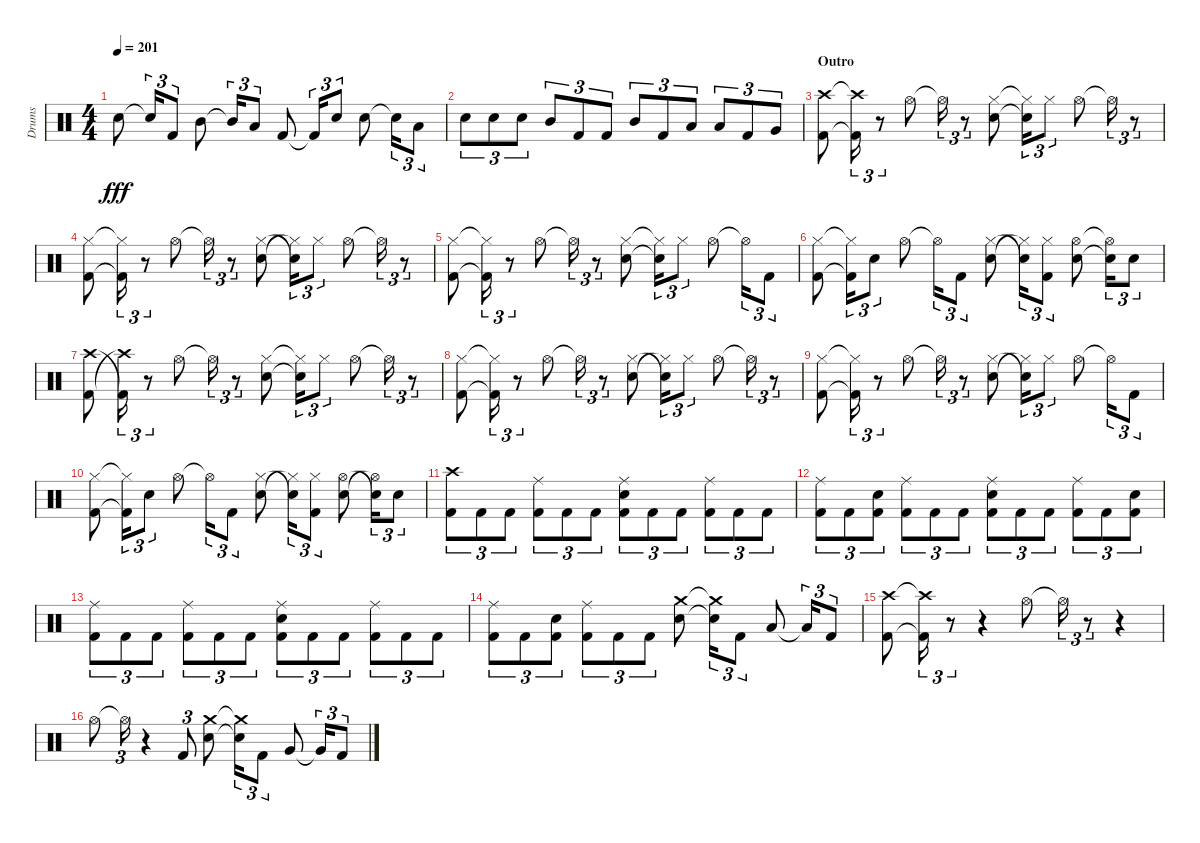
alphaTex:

\track ("Drums" "Drums") {instrument percussion}
\staff {score}
\articulation defaults
\ts (4 4)
\tempo 201
\clef neutral
\ks aminor "Snare (hit) 2".8{dy fff} "Snare (hit) 2"{t}.16{tu (3 2)} "Kick (hit) 2".8{tu (3 2)} "Mid Tom (hit)".8 "Mid Tom (hit)"{t}.16{tu (3 2)} "Low Tom (hit)".8{tu (3 2)} "Kick (hit) 2".8 "Kick (hit) 2"{t}.16{tu (3 2)} "Snare (hit) 2".8{tu (3 2)} "Snare (hit) 2".8 "Snare (hit) 2"{t}.16{tu (3 2)} "Low Floor Tom (hit)".8{tu (3 2)}
|
"Snare (hit) 2".8{tu (3 2)} "Snare (hit) 2".8{tu (3 2)} "Snare (hit) 2".8{tu (3 2)} "Mid Tom (hit)".8{tu (3 2)} "Kick (hit) 2".8{tu (3 2)} "Kick (hit) 2".8{tu (3 2)} "Mid Tom (hit)".8{tu (3 2)} "Kick (hit) 2".8{tu (3 2)} "Low Tom (hit)".8{tu (3 2)} "Low Tom (hit)".8{tu (3 2)} "Kick (hit) 2".8{tu (3 2)} "Very Low Tom (hit)".8{tu (3 2)} |
\section ("" "Outro")
("Kick (hit) 2" "Crash high (hit)").8 ("Kick (hit) 2"{t} "Crash high (hit)"{t}).16{tu (3 2)} r.8{tu (3 2)} "Hi-Hat (open)".8 "Hi-Hat (open)"{t}.16{tu (3 2)} r.8{tu (3 2)} ("Snare (hit) 2" "Hi-Hat (closed)").8 ("Snare (hit) 2"{t} "Hi-Hat (closed)"{t}).16{tu (3 2)} "Hi-Hat (closed)".8{tu (3 2)} "Hi-Hat (open)".8 "Hi-Hat (open)"{t}.16{tu (3 2)} r.8{tu (3 2)} |
("Kick (hit) 2" "Hi-Hat (closed)").8 ("Kick (hit) 2"{t} "Hi-Hat (closed)"{t}).16{tu (3 2)} r.8{tu (3 2)} "Hi-Hat (open)".8 "Hi-Hat (open)"{t}.16{tu (3 2)} r.8{tu (3 2)} ("Hi-Hat (closed)" "Snare (hit) 2").8 ("Snare (hit) 2"{t} "Hi-Hat (closed)"{t}).16{tu (3 2)} "Hi-Hat (closed)".8{tu (3 2)} "Hi-Hat (open)".8 "Hi-Hat (open)"{t}.16{tu (3 2)} r.8{tu (3 2)} |
("Kick (hit) 2" "Hi-Hat (closed)").8 ("Kick (hit) 2"{t} "Hi-Hat (closed)"{t}).16{tu (3 2)} r.8{tu (3 2)} "Hi-Hat (open)".8 "Hi-Hat (open)"{t}.16{tu (3 2)} r.8{tu (3 2)} ("Snare (hit) 2" "Hi-Hat (closed)").8 ("Snare (hit) 2"{t} "Hi-Hat (closed)"{t}).16{tu (3 2)} "Hi-Hat (closed)".8{tu (3 2)} "Hi-Hat (open)".8 "Hi-Hat (open)"{t}.16{tu (3 2)} "Kick (hit) 2".8{tu (3 2)} |
("Kick (hit) 2" "Hi-Hat (closed)").8 ("Kick (hit) 2"{t} "Hi-Hat (closed)"{t}).16{tu (3 2)} "Snare (hit) 2".8{tu (3 2)} "Hi-Hat (open)".8 "Hi-Hat (open)"{t}.16{tu (3 2)} "Kick (hit) 2".8{tu (3 2)} ("Snare (hit) 2" "Hi-Hat (closed)").8 ("Hi-Hat (closed)"{t} "Snare (hit) 2"{t}).16{tu (3 2)} ("Hi-Hat (closed)" "Kick (hit) 2").8{tu (3 2)} ("Snare (hit) 2" "Hi-Hat (open)").8 ("Snare (hit) 2"{t} "Hi-Hat (open)"{t}).16{tu (3 2)} "Snare (hit) 2".8{tu (3 2)} |
("Crash high (hit)" "Kick (hit) 2").8 ("Kick (hit) 2"{t} "Crash high (hit)"{t}).16{tu (3 2)} r.8{tu (3 2)} "Hi-Hat (open)".8 "Hi-Hat (open)"{t}.16{tu (3 2)} r.8{tu (3 2)} ("Snare (hit) 2" "Hi-Hat (closed)").8 ("Snare (hit) 2"{t} "Hi-Hat (closed)"{t}).16{tu (3 2)} "Hi-Hat (closed)".8{tu (3 2)} "Hi-Hat (open)".8 "Hi-Hat (open)"{t}.16{tu (3 2)} r.8{tu (3 2)} |
("Kick (hit) 2" "Hi-Hat (closed)").8 ("Kick (hit) 2"{t} "Hi-Hat (closed)"{t}).16{tu (3 2)} r.8{tu (3 2)} "Hi-Hat (open)".8 "Hi-Hat (open)"{t}.16{tu (3 2)} r.8{tu (3 2)} ("Snare (hit) 2" "Hi-Hat (closed)").8 ("Hi-Hat (closed)"{t} "Snare (hit) 2"{t}).16{tu (3 2)} "Hi-Hat (closed)".8{tu (3 2)} "Hi-Hat (open)".8 "Hi-Hat (open)"{t}.16{tu (3 2)} r.8{tu (3 2)} |
("Kick (hit) 2" "Hi-Hat (closed)").8 ("Kick (hit) 2"{t} "Hi-Hat (closed)"{t}).16{tu (3 2)} r.8{tu (3 2)} "Hi-Hat (open)".8 "Hi-Hat (open)"{t}.16{tu (3 2)} r.8{tu (3 2)} ("Hi-Hat (closed)" "Snare (hit) 2").8 ("Snare (hit) 2"{t} "Hi-Hat (closed)"{t}).16{tu (3 2)} "Hi-Hat (closed)".8{tu (3 2)} "Hi-Hat (open)".8 "Hi-Hat (open)"{t}.16{tu (3 2)} "Kick (hit) 2".8{tu (3 2)} |
("Hi-Hat (closed)" "Kick (hit) 2").8 ("Hi-Hat (closed)"{t} "Kick (hit) 2"{t}).16{tu (3 2)} "Snare (hit) 2".8{tu (3 2)} "Hi-Hat (open)".8 "Hi-Hat (open)"{t}.16{tu (3 2)} "Kick (hit) 2".8{tu (3 2)} ("Snare (hit) 2" "Hi-Hat (closed)").8 ("Hi-Hat (closed)"{t} "Snare (hit) 2"{t}).16{tu (3 2)} ("Hi-Hat (closed)" "Kick (hit) 2").8{tu (3 2)} ("Snare (hit) 2" "Hi-Hat (open)").8 ("Hi-Hat (open)"{t} "Snare (hit) 2"{t}).16{tu (3 2)} "Snare (hit) 2".8{tu (3 2)} |
("Kick (hit) 2" "Crash high (hit)").8{tu (3 2)} "Kick (hit) 2".8{tu (3 2)} "Kick (hit) 2".8{tu (3 2)} ("Kick (hit) 2" "Ride (middle)").8{tu (3 2)} "Kick (hit) 2".8{tu (3 2)} "Kick (hit) 2".8{tu (3 2)} ("Snare (hit) 2" "Ride (middle)" "Kick (hit) 2").8{tu (3 2)} "Kick (hit) 2".8{tu (3 2)} "Kick (hit) 2".8{tu (3 2)} ("Ride (middle)" "Kick (hit) 2").8{tu (3 2)} "Kick (hit) 2".8{tu (3 2)} "Kick (hit) 2".8{tu (3 2)} |
("Ride (middle)" "Kick (hit) 2").8{tu (3 2)} "Kick (hit) 2".8{tu (3 2)} ("Kick (hit) 2" "Snare (hit) 2").8{tu (3 2)} ("Kick (hit) 2" "Ride (middle)").8{tu (3 2)} "Kick (hit) 2".8{tu (3 2)} "Kick (hit) 2".8{tu (3 2)} ("Snare (hit) 2" "Kick (hit) 2" "Ride (middle)").8{tu (3 2)} "Kick (hit) 2".8{tu (3 2)} "Kick (hit) 2".8{tu (3 2)} ("Kick (hit) 2" "Ride (middle)").8{tu (3 2)} "Kick (hit) 2".8{tu (3 2)} ("Kick (hit) 2" "Snare (hit) 2").8{tu (3 2)} |
("Kick (hit) 2" "Ride (middle)").8{tu (3 2)} "Kick (hit) 2".8{tu (3 2)} "Kick (hit) 2".8{tu (3 2)} ("Ride (middle)" "Kick (hit) 2").8{tu (3 2)} "Kick (hit) 2".8{tu (3 2)} "Kick (hit) 2".8{tu (3 2)} ("Kick (hit) 2" "Snare (hit) 2" "Ride (middle)").8{tu (3 2)} "Kick (hit) 2".8{tu (3 2)} "Kick (hit) 2".8{tu (3 2)} ("Kick (hit) 2" "Ride (middle)").8{tu (3 2)} "Kick (hit) 2".8{tu (3 2)} "Kick (hit) 2".8{tu (3 2)} |
("Ride (middle)" "Kick (hit) 2").8{tu (3 2)} "Kick (hit) 2".8{tu (3 2)} ("Kick (hit) 2" "Snare (hit) 2").8{tu (3 2)} ("Ride (middle)" "Kick (hit) 2").8{tu (3 2)} "Kick (hit) 2".8{tu (3 2)} "Kick (hit) 2".8{tu (3 2)} ("Snare (hit) 2" "Crash medium (hit)").8 ("Snare (hit) 2"{t} "Crash medium (hit)"{t}).16{tu (3 2)} "Kick (hit) 2".8{tu (3 2)} "Low Floor Tom (hit)".8 "Low Floor Tom (hit)"{t}.16{tu (3 2)} "Kick (hit) 2".8{tu (3 2)} |
("Crash high (hit)" "Kick (hit) 2").8 ("Crash high (hit)"{t} "Kick (hit) 2"{t}).16{tu (3 2)} r.8{tu (3 2)} r.4 "Hi-Hat (open)".8 "Hi-Hat (open)"{t}.16{tu (3 2)} r.8{tu (3 2)} r.4 |
"Hi-Hat (open)".8 "Hi-Hat (open)"{t}.16{tu (3 2)} r.4 "Kick (hit) 2".8{tu (3 2)} ("Snare (hit) 2" "Crash medium (hit)").8 ("Snare (hit) 2"{t} "Crash medium (hit)"{t}).16{tu (3 2)} "Kick (hit) 2".8{tu (3 2)} "Very Low Tom (hit)".8 "Very Low Tom (hit)"{t}.16{tu (3 2)} "Kick (hit) 2".8{tu (3 2)}
